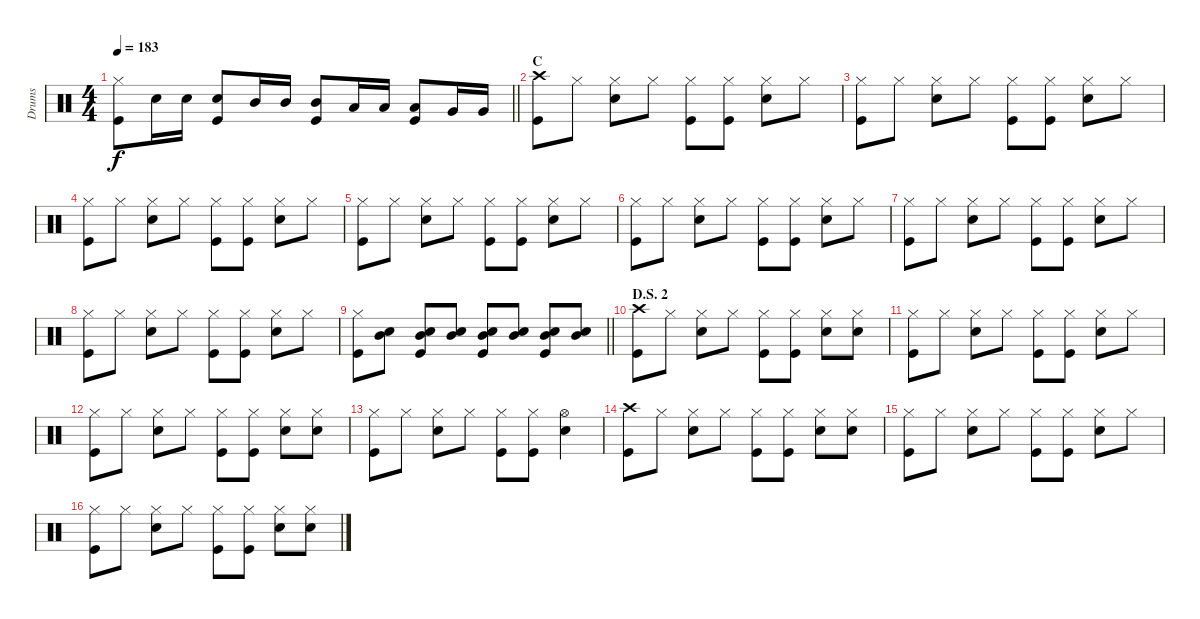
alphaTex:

\track ("Drums" "Drums") {instrument percussion}
\staff {score}
\articulation defaults
\ts (4 4)
\tempo 183
\clef neutral
\barLineRight lightlight
\ks c
("Hi-Hat (closed)" "Kick (hit)").8{dy f} "Electric Snare (hit)".16 "Electric Snare (hit)".16 ("Electric Snare (hit)" "Kick (hit)").8 "Mid Tom (hit)".16 "Mid Tom (hit)".16 ("Mid Tom (hit)" "Kick (hit)").8 "Low Tom (hit)".16 "Low Tom (hit)".16 ("Low Tom (hit)" "Kick (hit)").8 "Very Low Tom (hit)".16 "Very Low Tom (hit)".16 |
\section ("" "C")
("Crash high (hit)" "Kick (hit)").8 "Hi-Hat (closed)".8 ("Hi-Hat (closed)" "Electric Snare (hit)").8 "Hi-Hat (closed)".8 ("Hi-Hat (closed)" "Kick (hit)").8 ("Hi-Hat (closed)" "Kick (hit)").8 ("Hi-Hat (closed)" "Electric Snare (hit)").8 "Hi-Hat (closed)".8 |
("Hi-Hat (closed)" "Kick (hit)").8 "Hi-Hat (closed)".8 ("Hi-Hat (closed)" "Electric Snare (hit)").8 "Hi-Hat (closed)".8 ("Hi-Hat (closed)" "Kick (hit)").8 ("Hi-Hat (closed)" "Kick (hit)").8 ("Hi-Hat (closed)" "Electric Snare (hit)").8 "Hi-Hat (closed)".8 |
("Hi-Hat (closed)" "Kick (hit)").8 "Hi-Hat (closed)".8 ("Hi-Hat (closed)" "Electric Snare (hit)").8 "Hi-Hat (closed)".8 ("Hi-Hat (closed)" "Kick (hit)").8 ("Hi-Hat (closed)" "Kick (hit)").8 ("Hi-Hat (closed)" "Electric Snare (hit)").8 "Hi-Hat (closed)".8 |
("Hi-Hat (closed)" "Kick (hit)").8 "Hi-Hat (closed)".8 ("Hi-Hat (closed)" "Electric Snare (hit)").8 "Hi-Hat (closed)".8 ("Hi-Hat (closed)" "Kick (hit)").8 ("Hi-Hat (closed)" "Kick (hit)").8 ("Hi-Hat (closed)" "Electric Snare (hit)").8 "Hi-Hat (closed)".8 |
("Hi-Hat (closed)" "Kick (hit)").8 "Hi-Hat (closed)".8 ("Hi-Hat (closed)" "Electric Snare (hit)").8 "Hi-Hat (closed)".8 ("Hi-Hat (closed)" "Kick (hit)").8 ("Hi-Hat (closed)" "Kick (hit)").8 ("Hi-Hat (closed)" "Electric Snare (hit)").8 "Hi-Hat (closed)".8 |
("Hi-Hat (closed)" "Kick (hit)").8 "Hi-Hat (closed)".8 ("Hi-Hat (closed)" "Electric Snare (hit)").8 "Hi-Hat (closed)".8 ("Hi-Hat (closed)" "Kick (hit)").8 ("Hi-Hat (closed)" "Kick (hit)").8 ("Hi-Hat (closed)" "Electric Snare (hit)").8 "Hi-Hat (closed)".8 |
("Hi-Hat (closed)" "Kick (hit)").8 "Hi-Hat (closed)".8 ("Hi-Hat (closed)" "Electric Snare (hit)").8 "Hi-Hat (closed)".8 ("Hi-Hat (closed)" "Kick (hit)").8 ("Hi-Hat (closed)" "Kick (hit)").8 ("Hi-Hat (closed)" "Electric Snare (hit)").8 "Hi-Hat (closed)".8 |
\barLineRight lightlight
("Hi-Hat (closed)" "Kick (hit)").8 ("Mid Tom (hit)" "Electric Snare (hit)").8 ("Mid Tom (hit)" "Electric Snare (hit)" "Kick (hit)").8 ("Mid Tom (hit)" "Electric Snare (hit)").8 ("Mid Tom (hit)" "Electric Snare (hit)" "Kick (hit)").8 ("Mid Tom (hit)" "Electric Snare (hit)").8 ("Mid Tom (hit)" "Electric Snare (hit)" "Kick (hit)").8 ("Mid Tom (hit)" "Electric Snare (hit)").8 |
\section ("" "D.S. 2")
("Crash high (hit)" "Kick (hit)").8 "Hi-Hat (closed)".8 ("Hi-Hat (closed)" "Electric Snare (hit)").8 "Hi-Hat (closed)".8 ("Hi-Hat (closed)" "Kick (hit)").8 ("Hi-Hat (closed)" "Kick (hit)").8 ("Hi-Hat (closed)" "Electric Snare (hit)").8 ("Hi-Hat (closed)" "Electric Snare (hit)").8 |
("Hi-Hat (closed)" "Kick (hit)").8 "Hi-Hat (closed)".8 ("Hi-Hat (closed)" "Electric Snare (hit)").8 "Hi-Hat (closed)".8 ("Hi-Hat (closed)" "Kick (hit)").8 ("Hi-Hat (closed)" "Kick (hit)").8 ("Hi-Hat (closed)" "Electric Snare (hit)").8 "Hi-Hat (closed)".8 |
("Hi-Hat (closed)" "Kick (hit)").8 "Hi-Hat (closed)".8 ("Hi-Hat (closed)" "Electric Snare (hit)").8 "Hi-Hat (closed)".8 ("Hi-Hat (closed)" "Kick (hit)").8 ("Hi-Hat (closed)" "Kick (hit)").8 ("Hi-Hat (closed)" "Electric Snare (hit)").8 ("Hi-Hat (closed)" "Electric Snare (hit)").8 |
("Hi-Hat (closed)" "Kick (hit)").8 "Hi-Hat (closed)".8 ("Hi-Hat (closed)" "Electric Snare (hit)").8 "Hi-Hat (closed)".8 ("Hi-Hat (closed)" "Kick (hit)").8 ("Hi-Hat (closed)" "Kick (hit)").8 ("Hi-Hat (open)" "Electric Snare (hit)").4 |
("Crash high (hit)" "Kick (hit)").8 "Hi-Hat (closed)".8 ("Hi-Hat (closed)" "Electric Snare (hit)").8 "Hi-Hat (closed)".8 ("Hi-Hat (closed)" "Kick (hit)").8 ("Hi-Hat (closed)" "Kick (hit)").8 ("Hi-Hat (closed)" "Electric Snare (hit)").8 ("Hi-Hat (closed)" "Electric Snare (hit)").8 |
("Hi-Hat (closed)" "Kick (hit)").8 "Hi-Hat (closed)".8 ("Hi-Hat (closed)" "Electric Snare (hit)").8 "Hi-Hat (closed)".8 ("Hi-Hat (closed)" "Kick (hit)").8 ("Hi-Hat (closed)" "Kick (hit)").8 ("Hi-Hat (closed)" "Electric Snare (hit)").8 "Hi-Hat (closed)".8 |
("Hi-Hat (closed)" "Kick (hit)").8 "Hi-Hat (closed)".8 ("Hi-Hat (closed)" "Electric Snare (hit)").8 "Hi-Hat (closed)".8 ("Hi-Hat (closed)" "Kick (hit)").8 ("Hi-Hat (closed)" "Kick (hit)").8 ("Hi-Hat (closed)" "Electric Snare (hit)").8 ("Hi-Hat (closed)" "Electric Snare (hit)").8
